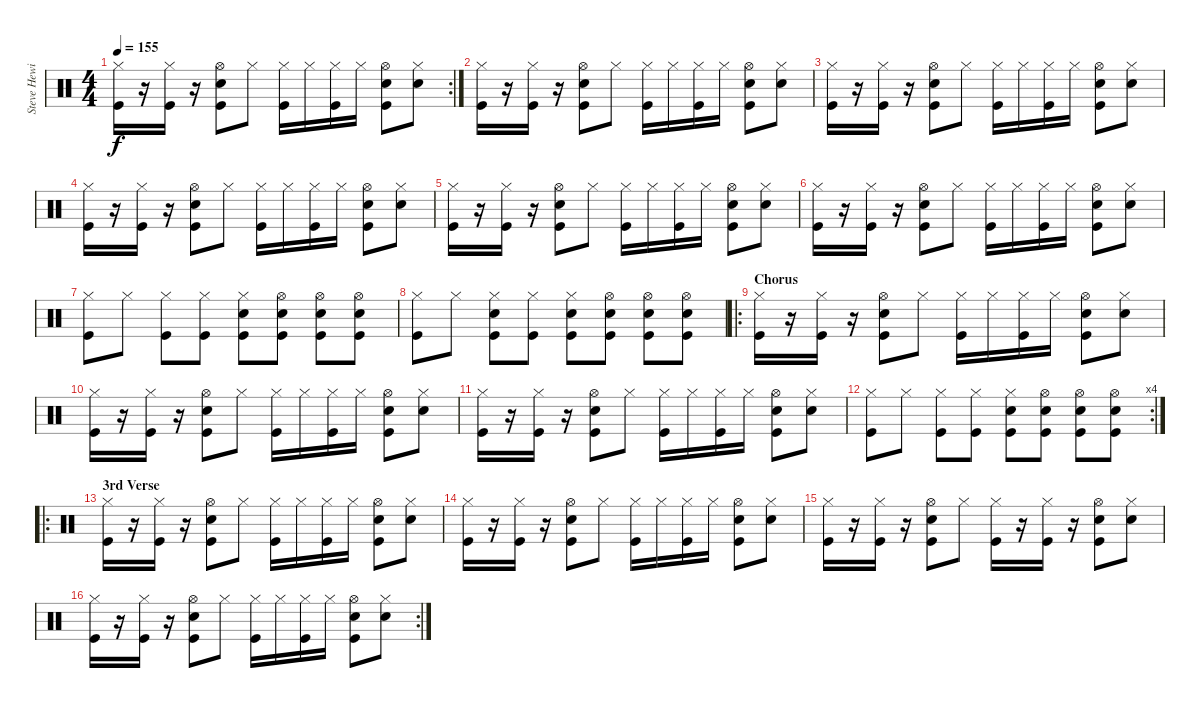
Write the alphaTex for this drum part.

\track ("Steve Hewitt" "Steve Hewi") {instrument percussion}
\staff {score}
\articulation defaults
\rc 2
\ts (4 4)
\tempo 155
\clef neutral
\ks c
("Hi-Hat (closed)" "Kick (hit)").16{dy f} r.16 ("Hi-Hat (closed)" "Kick (hit)").16 r.16 ("Snare (hit) 2" "Hi-Hat (open)" "Kick (hit)").8 "Hi-Hat (closed)".8 ("Hi-Hat (closed)" "Kick (hit)").16 "Hi-Hat (closed)".16 ("Hi-Hat (closed)" "Kick (hit)").16 "Hi-Hat (closed)".16 ("Snare (hit) 2" "Hi-Hat (open)" "Kick (hit)").8 ("Snare (hit) 2" "Hi-Hat (closed)").8 |
("Hi-Hat (closed)" "Kick (hit)").16 r.16 ("Hi-Hat (closed)" "Kick (hit)").16 r.16 ("Snare (hit) 2" "Hi-Hat (open)" "Kick (hit)").8 "Hi-Hat (closed)".8 ("Hi-Hat (closed)" "Kick (hit)").16 "Hi-Hat (closed)".16 ("Hi-Hat (closed)" "Kick (hit)").16 "Hi-Hat (closed)".16 ("Snare (hit) 2" "Hi-Hat (open)" "Kick (hit)").8 ("Snare (hit) 2" "Hi-Hat (closed)").8 |
("Hi-Hat (closed)" "Kick (hit)").16 r.16 ("Hi-Hat (closed)" "Kick (hit)").16 r.16 ("Snare (hit) 2" "Hi-Hat (open)" "Kick (hit)").8 "Hi-Hat (closed)".8 ("Hi-Hat (closed)" "Kick (hit)").16 "Hi-Hat (closed)".16 ("Hi-Hat (closed)" "Kick (hit)").16 "Hi-Hat (closed)".16 ("Snare (hit) 2" "Hi-Hat (open)" "Kick (hit)").8 ("Snare (hit) 2" "Hi-Hat (closed)").8 |
("Hi-Hat (closed)" "Kick (hit)").16 r.16 ("Hi-Hat (closed)" "Kick (hit)").16 r.16 ("Snare (hit) 2" "Hi-Hat (open)" "Kick (hit)").8 "Hi-Hat (closed)".8 ("Hi-Hat (closed)" "Kick (hit)").16 "Hi-Hat (closed)".16 ("Hi-Hat (closed)" "Kick (hit)").16 "Hi-Hat (closed)".16 ("Snare (hit) 2" "Hi-Hat (open)" "Kick (hit)").8 ("Snare (hit) 2" "Hi-Hat (closed)").8 |
("Hi-Hat (closed)" "Kick (hit)").16 r.16 ("Hi-Hat (closed)" "Kick (hit)").16 r.16 ("Snare (hit) 2" "Hi-Hat (open)" "Kick (hit)").8 "Hi-Hat (closed)".8 ("Hi-Hat (closed)" "Kick (hit)").16 "Hi-Hat (closed)".16 ("Hi-Hat (closed)" "Kick (hit)").16 "Hi-Hat (closed)".16 ("Snare (hit) 2" "Hi-Hat (open)" "Kick (hit)").8 ("Snare (hit) 2" "Hi-Hat (closed)").8 |
("Hi-Hat (closed)" "Kick (hit)").16 r.16 ("Hi-Hat (closed)" "Kick (hit)").16 r.16 ("Snare (hit) 2" "Hi-Hat (open)" "Kick (hit)").8 "Hi-Hat (closed)".8 ("Hi-Hat (closed)" "Kick (hit)").16 "Hi-Hat (closed)".16 ("Hi-Hat (closed)" "Kick (hit)").16 "Hi-Hat (closed)".16 ("Snare (hit) 2" "Hi-Hat (open)" "Kick (hit)").8 ("Snare (hit) 2" "Hi-Hat (closed)").8 |
("Hi-Hat (closed)" "Kick (hit)").8 "Hi-Hat (closed)".8 ("Hi-Hat (closed)" "Kick (hit)").8 ("Hi-Hat (closed)" "Kick (hit)").8 ("Snare (hit) 2" "Hi-Hat (closed)" "Kick (hit)").8 ("Snare (hit) 2" "Hi-Hat (open)" "Kick (hit)").8 ("Snare (hit) 2" "Hi-Hat (open)" "Kick (hit)").8 ("Snare (hit) 2" "Hi-Hat (open)" "Kick (hit)").8 |
("Hi-Hat (closed)" "Kick (hit)").8 "Hi-Hat (closed)".8 ("Snare (hit) 2" "Hi-Hat (closed)" "Kick (hit)").8 ("Hi-Hat (closed)" "Kick (hit)").8 ("Snare (hit) 2" "Hi-Hat (closed)" "Kick (hit)").8 ("Snare (hit) 2" "Hi-Hat (open)" "Kick (hit)").8 ("Snare (hit) 2" "Hi-Hat (open)" "Kick (hit)").8 ("Snare (hit) 2" "Hi-Hat (open)" "Kick (hit)").8 |
\ro
\section ("" "Chorus")
("Hi-Hat (closed)" "Kick (hit)").16 r.16 ("Hi-Hat (closed)" "Kick (hit)").16 r.16 ("Snare (hit) 2" "Hi-Hat (open)" "Kick (hit)").8 "Hi-Hat (closed)".8 ("Hi-Hat (closed)" "Kick (hit)").16 "Hi-Hat (closed)".16 ("Hi-Hat (closed)" "Kick (hit)").16 "Hi-Hat (closed)".16 ("Snare (hit) 2" "Hi-Hat (open)" "Kick (hit)").8 ("Snare (hit) 2" "Hi-Hat (closed)").8 |
("Hi-Hat (closed)" "Kick (hit)").16 r.16 ("Hi-Hat (closed)" "Kick (hit)").16 r.16 ("Snare (hit) 2" "Hi-Hat (open)" "Kick (hit)").8 "Hi-Hat (closed)".8 ("Hi-Hat (closed)" "Kick (hit)").16 "Hi-Hat (closed)".16 ("Hi-Hat (closed)" "Kick (hit)").16 "Hi-Hat (closed)".16 ("Snare (hit) 2" "Hi-Hat (open)" "Kick (hit)").8 ("Snare (hit) 2" "Hi-Hat (closed)").8 |
("Hi-Hat (closed)" "Kick (hit)").16 r.16 ("Hi-Hat (closed)" "Kick (hit)").16 r.16 ("Snare (hit) 2" "Hi-Hat (open)" "Kick (hit)").8 "Hi-Hat (closed)".8 ("Hi-Hat (closed)" "Kick (hit)").16 "Hi-Hat (closed)".16 ("Hi-Hat (closed)" "Kick (hit)").16 "Hi-Hat (closed)".16 ("Snare (hit) 2" "Hi-Hat (open)" "Kick (hit)").8 ("Snare (hit) 2" "Hi-Hat (closed)").8 |
\rc 4
("Hi-Hat (closed)" "Kick (hit)").8 "Hi-Hat (closed)".8 ("Hi-Hat (closed)" "Kick (hit)").8 ("Hi-Hat (closed)" "Kick (hit)").8 ("Snare (hit) 2" "Hi-Hat (closed)" "Kick (hit)").8 ("Snare (hit) 2" "Hi-Hat (open)" "Kick (hit)").8 ("Snare (hit) 2" "Hi-Hat (open)" "Kick (hit)").8 ("Snare (hit) 2" "Hi-Hat (open)" "Kick (hit)").8 |
\ro
\section ("" "3rd Verse")
("Hi-Hat (closed)" "Kick (hit)").16 r.16 ("Hi-Hat (closed)" "Kick (hit)").16 r.16 ("Snare (hit) 2" "Hi-Hat (open)" "Kick (hit)").8 "Hi-Hat (closed)".8 ("Hi-Hat (closed)" "Kick (hit)").16 "Hi-Hat (closed)".16 ("Hi-Hat (closed)" "Kick (hit)").16 "Hi-Hat (closed)".16 ("Snare (hit) 2" "Hi-Hat (open)" "Kick (hit)").8 ("Snare (hit) 2" "Hi-Hat (closed)").8 |
("Hi-Hat (closed)" "Kick (hit)").16 r.16 ("Hi-Hat (closed)" "Kick (hit)").16 r.16 ("Snare (hit) 2" "Hi-Hat (open)" "Kick (hit)").8 "Hi-Hat (closed)".8 ("Hi-Hat (closed)" "Kick (hit)").16 "Hi-Hat (closed)".16 ("Hi-Hat (closed)" "Kick (hit)").16 "Hi-Hat (closed)".16 ("Snare (hit) 2" "Hi-Hat (open)" "Kick (hit)").8 ("Snare (hit) 2" "Hi-Hat (closed)").8 |
("Hi-Hat (closed)" "Kick (hit)").16 r.16 ("Hi-Hat (closed)" "Kick (hit)").16 r.16 ("Snare (hit) 2" "Hi-Hat (open)" "Kick (hit)").8 "Hi-Hat (closed)".8 ("Hi-Hat (closed)" "Kick (hit)").16 r.16 ("Hi-Hat (closed)" "Kick (hit)").16 r.16 ("Snare (hit) 2" "Hi-Hat (open)" "Kick (hit)").8 ("Snare (hit) 2" "Hi-Hat (closed)").8 |
\rc 2
("Hi-Hat (closed)" "Kick (hit)").16 r.16 ("Hi-Hat (closed)" "Kick (hit)").16 r.16 ("Snare (hit) 2" "Hi-Hat (open)" "Kick (hit)").8 "Hi-Hat (closed)".8 ("Hi-Hat (closed)" "Kick (hit)").16 "Hi-Hat (closed)".16 ("Hi-Hat (closed)" "Kick (hit)").16 "Hi-Hat (closed)".16 ("Snare (hit) 2" "Hi-Hat (open)" "Kick (hit)").8 ("Snare (hit) 2" "Hi-Hat (closed)").8
